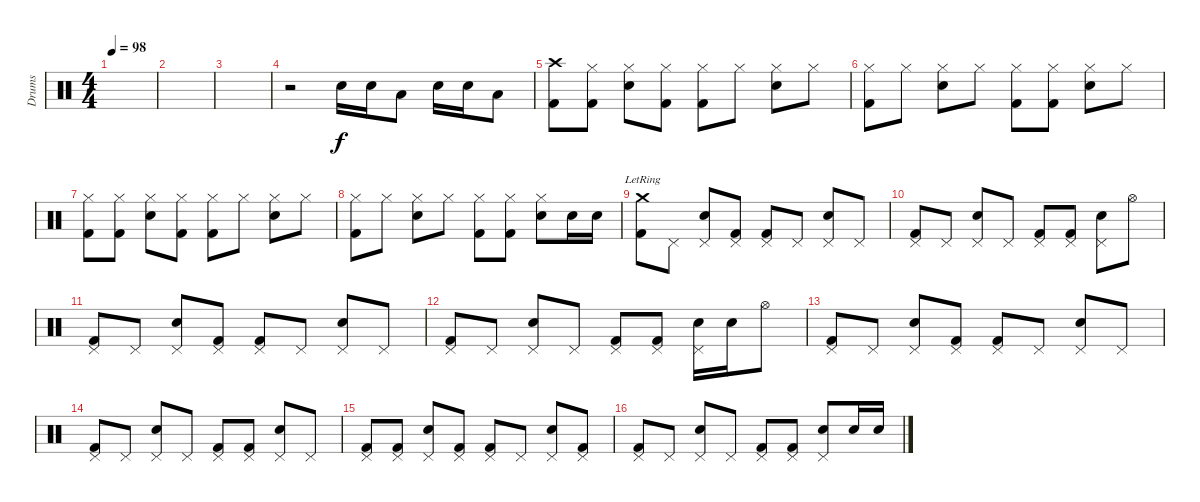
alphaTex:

\track ("Drums" "Drums") {instrument percussion}
\staff {score}
\articulation defaults
\ts (4 4)
\tempo 98
\clef neutral
\ks c
|
|
|
r.2 "Electric Snare (hit)".16 "Snare (hit) 2".16 "Low Tom (hit)".8 "Electric Snare (hit)".16 "Snare (hit) 2".16 "Low Tom (hit)".8 |
("Crash high (hit)" "Kick (hit) 2").8 ("Hi-Hat (closed)" "Kick (hit) 2").8 ("Hi-Hat (closed)" "Snare (hit) 2").8 ("Hi-Hat (closed)" "Kick (hit) 2").8 ("Hi-Hat (closed)" "Kick (hit) 2").8 "Hi-Hat (closed)".8 ("Hi-Hat (closed)" "Snare (hit) 2").8 "Hi-Hat (closed)".8 |
("Hi-Hat (closed)" "Kick (hit) 2").8 "Hi-Hat (closed)".8 ("Hi-Hat (closed)" "Snare (hit) 2").8 "Hi-Hat (closed)".8 ("Hi-Hat (closed)" "Kick (hit) 2").8 ("Hi-Hat (closed)" "Kick (hit) 2").8 ("Hi-Hat (closed)" "Snare (hit) 2").8 "Hi-Hat (closed)".8 |
("Hi-Hat (closed)" "Kick (hit) 2").8 ("Hi-Hat (closed)" "Kick (hit) 2").8 ("Hi-Hat (closed)" "Snare (hit) 2").8 ("Hi-Hat (closed)" "Kick (hit) 2").8 ("Hi-Hat (closed)" "Kick (hit) 2").8 "Hi-Hat (closed)".8 ("Hi-Hat (closed)" "Snare (hit) 2").8 "Hi-Hat (closed)".8 |
("Hi-Hat (closed)" "Kick (hit) 2").8 "Hi-Hat (closed)".8 ("Hi-Hat (closed)" "Snare (hit) 2").8 "Hi-Hat (closed)".8 ("Hi-Hat (closed)" "Kick (hit) 2").8 ("Hi-Hat (closed)" "Kick (hit) 2").8 ("Hi-Hat (closed)" "Snare (hit) 2").8 "Snare (hit) 2".16 "Snare (hit) 2".16 |
("Crash medium (hit)"{lr} "Kick (hit) 2").8 "Pedal Hi-Hat (hit)".8 ("Pedal Hi-Hat (hit)" "Snare (hit) 2").8 ("Pedal Hi-Hat (hit)" "Kick (hit) 2").8 ("Pedal Hi-Hat (hit)" "Kick (hit) 2").8 "Pedal Hi-Hat (hit)".8 ("Pedal Hi-Hat (hit)" "Snare (hit) 2").8 "Pedal Hi-Hat (hit)".8 |
("Pedal Hi-Hat (hit)" "Kick (hit) 2").8 "Pedal Hi-Hat (hit)".8 ("Pedal Hi-Hat (hit)" "Snare (hit) 2").8 "Pedal Hi-Hat (hit)".8 ("Pedal Hi-Hat (hit)" "Kick (hit) 2").8 ("Pedal Hi-Hat (hit)" "Kick (hit) 2").8 ("Pedal Hi-Hat (hit)" "Snare (hit) 2").8 "Hi-Hat (open)".8 |
("Pedal Hi-Hat (hit)" "Kick (hit) 2").8 "Pedal Hi-Hat (hit)".8 ("Pedal Hi-Hat (hit)" "Snare (hit) 2").8 ("Pedal Hi-Hat (hit)" "Kick (hit) 2").8 ("Pedal Hi-Hat (hit)" "Kick (hit) 2").8 "Pedal Hi-Hat (hit)".8 ("Pedal Hi-Hat (hit)" "Snare (hit) 2").8 "Pedal Hi-Hat (hit)".8 |
("Pedal Hi-Hat (hit)" "Kick (hit) 2").8 "Pedal Hi-Hat (hit)".8 ("Pedal Hi-Hat (hit)" "Snare (hit) 2").8 "Pedal Hi-Hat (hit)".8 ("Pedal Hi-Hat (hit)" "Kick (hit) 2").8 ("Pedal Hi-Hat (hit)" "Kick (hit) 2").8 ("Pedal Hi-Hat (hit)" "Snare (hit) 2").16 "Snare (hit) 2".16 "Hi-Hat (open)".8 |
("Pedal Hi-Hat (hit)" "Kick (hit) 2").8 "Pedal Hi-Hat (hit)".8 ("Pedal Hi-Hat (hit)" "Snare (hit) 2").8 ("Pedal Hi-Hat (hit)" "Kick (hit) 2").8 ("Pedal Hi-Hat (hit)" "Kick (hit) 2").8 "Pedal Hi-Hat (hit)".8 ("Pedal Hi-Hat (hit)" "Snare (hit) 2").8 "Pedal Hi-Hat (hit)".8 |
("Pedal Hi-Hat (hit)" "Kick (hit) 2").8 "Pedal Hi-Hat (hit)".8 ("Pedal Hi-Hat (hit)" "Snare (hit) 2").8 "Pedal Hi-Hat (hit)".8 ("Pedal Hi-Hat (hit)" "Kick (hit) 2").8 ("Pedal Hi-Hat (hit)" "Kick (hit) 2").8 ("Pedal Hi-Hat (hit)" "Snare (hit) 2").8 "Pedal Hi-Hat (hit)".8 |
("Pedal Hi-Hat (hit)" "Kick (hit) 2").8 ("Pedal Hi-Hat (hit)" "Kick (hit) 2").8 ("Pedal Hi-Hat (hit)" "Snare (hit) 2").8 ("Pedal Hi-Hat (hit)" "Kick (hit) 2").8 ("Pedal Hi-Hat (hit)" "Kick (hit) 2").8 "Pedal Hi-Hat (hit)".8 ("Pedal Hi-Hat (hit)" "Snare (hit) 2").8 ("Pedal Hi-Hat (hit)" "Kick (hit) 2").8 |
("Pedal Hi-Hat (hit)" "Kick (hit) 2").8 "Pedal Hi-Hat (hit)".8 ("Pedal Hi-Hat (hit)" "Snare (hit) 2").8 "Pedal Hi-Hat (hit)".8 ("Pedal Hi-Hat (hit)" "Kick (hit) 2").8 ("Pedal Hi-Hat (hit)" "Kick (hit) 2").8 ("Pedal Hi-Hat (hit)" "Snare (hit) 2").8 "Snare (hit) 2".16 "Snare (hit) 2".16
